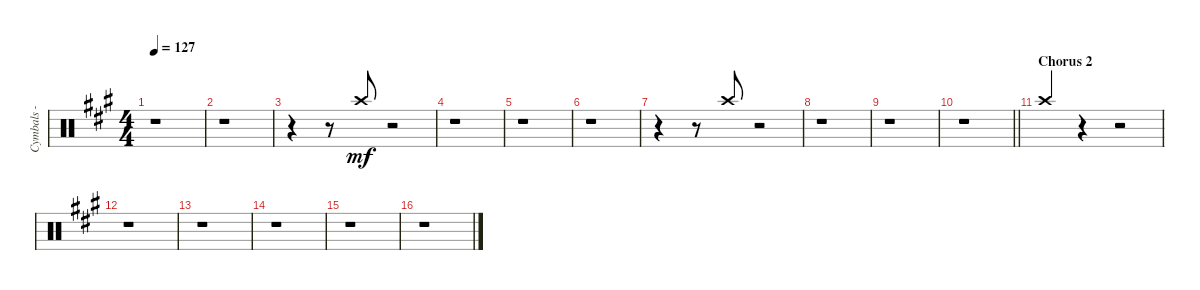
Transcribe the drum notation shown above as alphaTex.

\track ("Cymbals - crash" "Cymbals - ") {instrument percussion}
\staff {score}
\articulation defaults
\ts (4 4)
\tempo 127
\clef neutral
\ks a
r.1{dy mf} |
r.1 |
r.4 r.8 "Crash high (hit)".8{beam Up} r.2 |
r.1 |
r.1 |
r.1 |
r.4{beam merge} r.8 "Crash high (hit)".8{beam Up} r.2 |
r.1 |
r.1 |
\barLineRight lightlight
r.1 |
\section ("" "Chorus 2")
"Crash high (hit)".4{beam Up} r.4 r.2 |
r.1 |
r.1 |
r.1 |
r.1 |
r.1
